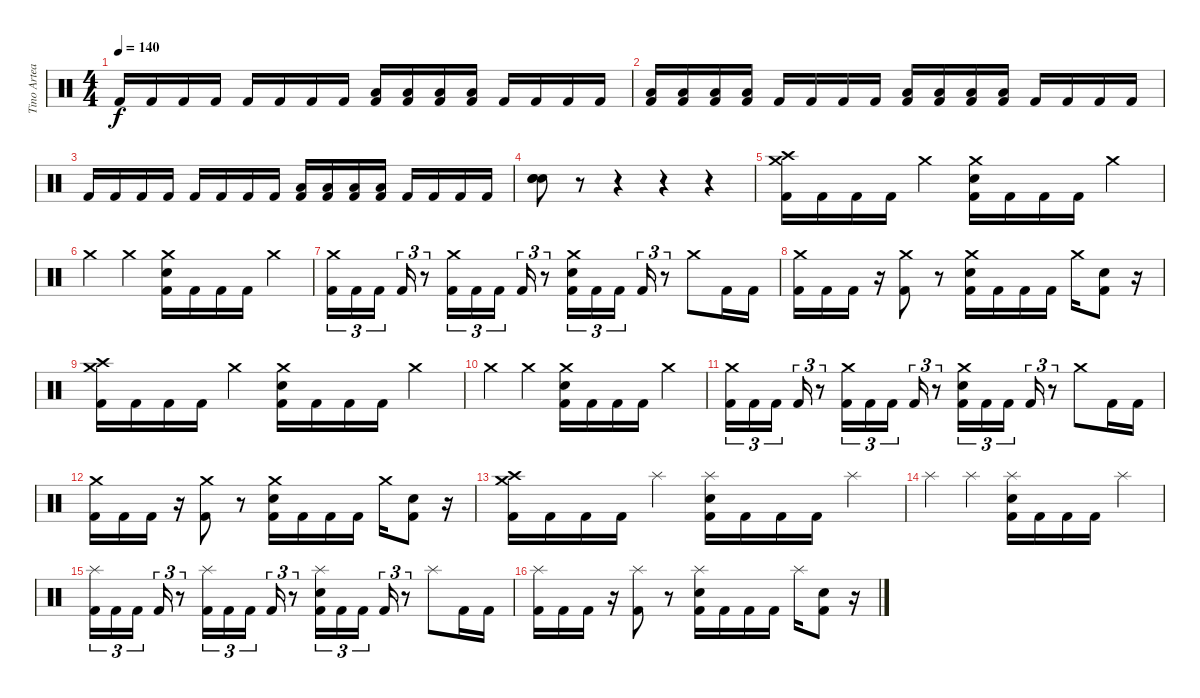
\track ("Tino Arteaga" "Tino Artea") {instrument percussion}
\staff {score}
\articulation defaults
\ts (4 4)
\tempo 140
\clef neutral
\ks c "Kick (hit) 2".16{dy f} "Kick (hit) 2".16 "Kick (hit) 2".16 "Kick (hit) 2".16 "Kick (hit) 2".16 "Kick (hit) 2".16 "Kick (hit) 2".16 "Kick (hit) 2".16
("Low Floor Tom (hit)" "Kick (hit) 2").16 ("Low Floor Tom (hit)" "Kick (hit) 2").16 ("Low Floor Tom (hit)" "Kick (hit) 2").16 ("Low Floor Tom (hit)" "Kick (hit) 2").16 "Kick (hit) 2".16 "Kick (hit) 2".16 "Kick (hit) 2".16 "Kick (hit) 2".16 |
("Low Floor Tom (hit)" "Kick (hit) 2").16 ("Low Floor Tom (hit)" "Kick (hit) 2").16 ("Low Floor Tom (hit)" "Kick (hit) 2").16 ("Low Floor Tom (hit)" "Kick (hit) 2").16 "Kick (hit) 2".16 "Kick (hit) 2".16 "Kick (hit) 2".16 "Kick (hit) 2".16 ("Low Floor Tom (hit)" "Kick (hit) 2").16 ("Low Floor Tom (hit)" "Kick (hit) 2").16 ("Low Floor Tom (hit)" "Kick (hit) 2").16 ("Low Floor Tom (hit)" "Kick (hit) 2").16 "Kick (hit) 2".16 "Kick (hit) 2".16 "Kick (hit) 2".16 "Kick (hit) 2".16 |
"Kick (hit) 2".16 "Kick (hit) 2".16 "Kick (hit) 2".16 "Kick (hit) 2".16 "Kick (hit) 2".16 "Kick (hit) 2".16 "Kick (hit) 2".16 "Kick (hit) 2".16 ("Low Floor Tom (hit)" "Kick (hit) 2").16 ("Low Floor Tom (hit)" "Kick (hit) 2").16 ("Low Floor Tom (hit)" "Kick (hit) 2").16 ("Low Floor Tom (hit)" "Kick (hit) 2").16 "Kick (hit) 2".16 "Kick (hit) 2".16 "Kick (hit) 2".16 "Kick (hit) 2".16 |
("Electric Snare (hit)" "Electric Snare (hit)" "Electric Snare (hit)").8 r.8 r.4 r.4 r.4 |
("Crash medium (hit)" "Crash high (hit)" "Kick (hit) 2").16 "Kick (hit) 2".16 "Kick (hit) 2".16 "Kick (hit) 2".16 "Crash medium (hit)".4 ("Crash medium (hit)" "Electric Snare (hit)" "Kick (hit) 2").16 "Kick (hit) 2".16 "Kick (hit) 2".16 "Kick (hit) 2".16 "Crash medium (hit)".4 |
"Crash medium (hit)".4 "Crash medium (hit)".4 ("Crash medium (hit)" "Electric Snare (hit)" "Kick (hit) 2").16 "Kick (hit) 2".16 "Kick (hit) 2".16 "Kick (hit) 2".16 "Crash medium (hit)".4 |
("Crash medium (hit)" "Kick (hit) 2").16{tu (3 2)} "Kick (hit) 2".16{tu (3 2)} "Kick (hit) 2".16{tu (3 2) beam splitsecondary} "Kick (hit) 2".16{tu (3 2)} r.8{tu (3 2)} ("Crash medium (hit)" "Kick (hit) 2").16{tu (3 2)} "Kick (hit) 2".16{tu (3 2)} "Kick (hit) 2".16{tu (3 2) beam splitsecondary} "Kick (hit) 2".16{tu (3 2)} r.8{tu (3 2)} ("Crash medium (hit)" "Electric Snare (hit)" "Kick (hit) 2").16{tu (3 2)} "Kick (hit) 2".16{tu (3 2)} "Kick (hit) 2".16{tu (3 2) beam splitsecondary} "Kick (hit) 2".16{tu (3 2)} r.8{tu (3 2)} "Crash medium (hit)".8 "Kick (hit) 2".16 "Kick (hit) 2".16 |
("Crash medium (hit)" "Kick (hit) 2").16 "Kick (hit) 2".16 "Kick (hit) 2".16 r.16 ("Crash medium (hit)" "Kick (hit) 2").8 r.8 ("Crash medium (hit)" "Electric Snare (hit)" "Kick (hit) 2").16 "Kick (hit) 2".16 "Kick (hit) 2".16 "Kick (hit) 2".16 "Crash medium (hit)".16 ("Electric Snare (hit)" "Kick (hit) 2").8 r.16 |
("Crash medium (hit)" "Crash high (hit)" "Kick (hit) 2").16 "Kick (hit) 2".16 "Kick (hit) 2".16 "Kick (hit) 2".16 "Crash medium (hit)".4 ("Crash medium (hit)" "Electric Snare (hit)" "Kick (hit) 2").16 "Kick (hit) 2".16 "Kick (hit) 2".16 "Kick (hit) 2".16 "Crash medium (hit)".4 |
"Crash medium (hit)".4 "Crash medium (hit)".4 ("Crash medium (hit)" "Electric Snare (hit)" "Kick (hit) 2").16 "Kick (hit) 2".16 "Kick (hit) 2".16 "Kick (hit) 2".16 "Crash medium (hit)".4 |
("Crash medium (hit)" "Kick (hit) 2").16{tu (3 2)} "Kick (hit) 2".16{tu (3 2)} "Kick (hit) 2".16{tu (3 2) beam splitsecondary} "Kick (hit) 2".16{tu (3 2)} r.8{tu (3 2)} ("Crash medium (hit)" "Kick (hit) 2").16{tu (3 2)} "Kick (hit) 2".16{tu (3 2)} "Kick (hit) 2".16{tu (3 2) beam splitsecondary} "Kick (hit) 2".16{tu (3 2)} r.8{tu (3 2)} ("Crash medium (hit)" "Electric Snare (hit)" "Kick (hit) 2").16{tu (3 2)} "Kick (hit) 2".16{tu (3 2)} "Kick (hit) 2".16{tu (3 2) beam splitsecondary} "Kick (hit) 2".16{tu (3 2)} r.8{tu (3 2)} "Crash medium (hit)".8 "Kick (hit) 2".16 "Kick (hit) 2".16 |
("Crash medium (hit)" "Kick (hit) 2").16 "Kick (hit) 2".16 "Kick (hit) 2".16 r.16 ("Crash medium (hit)" "Kick (hit) 2").8 r.8 ("Crash medium (hit)" "Electric Snare (hit)" "Kick (hit) 2").16 "Kick (hit) 2".16 "Kick (hit) 2".16 "Kick (hit) 2".16 "Crash medium (hit)".16 ("Electric Snare (hit)" "Kick (hit) 2").8 r.16 |
("Crash medium (hit)" "Crash high (hit)" "Kick (hit) 2").16 "Kick (hit) 2".16 "Kick (hit) 2".16 "Kick (hit) 2".16 "Splash (hit)".4 ("Splash (hit)" "Electric Snare (hit)" "Kick (hit) 2").16 "Kick (hit) 2".16 "Kick (hit) 2".16 "Kick (hit) 2".16 "Splash (hit)".4 |
"Splash (hit)".4 "Splash (hit)".4 ("Splash (hit)" "Electric Snare (hit)" "Kick (hit) 2").16 "Kick (hit) 2".16 "Kick (hit) 2".16 "Kick (hit) 2".16 "Splash (hit)".4 |
("Splash (hit)" "Kick (hit) 2").16{tu (3 2)} "Kick (hit) 2".16{tu (3 2)} "Kick (hit) 2".16{tu (3 2) beam splitsecondary} "Kick (hit) 2".16{tu (3 2)} r.8{tu (3 2)} ("Splash (hit)" "Kick (hit) 2").16{tu (3 2)} "Kick (hit) 2".16{tu (3 2)} "Kick (hit) 2".16{tu (3 2) beam splitsecondary} "Kick (hit) 2".16{tu (3 2)} r.8{tu (3 2)} ("Splash (hit)" "Electric Snare (hit)" "Kick (hit) 2").16{tu (3 2)} "Kick (hit) 2".16{tu (3 2)} "Kick (hit) 2".16{tu (3 2) beam splitsecondary} "Kick (hit) 2".16{tu (3 2)} r.8{tu (3 2)} "Splash (hit)".8 "Kick (hit) 2".16 "Kick (hit) 2".16 |
("Splash (hit)" "Kick (hit) 2").16 "Kick (hit) 2".16 "Kick (hit) 2".16 r.16 ("Splash (hit)" "Kick (hit) 2").8 r.8 ("Splash (hit)" "Electric Snare (hit)" "Kick (hit) 2").16 "Kick (hit) 2".16 "Kick (hit) 2".16 "Kick (hit) 2".16 "Splash (hit)".16 ("Electric Snare (hit)" "Kick (hit) 2").8 r.16
